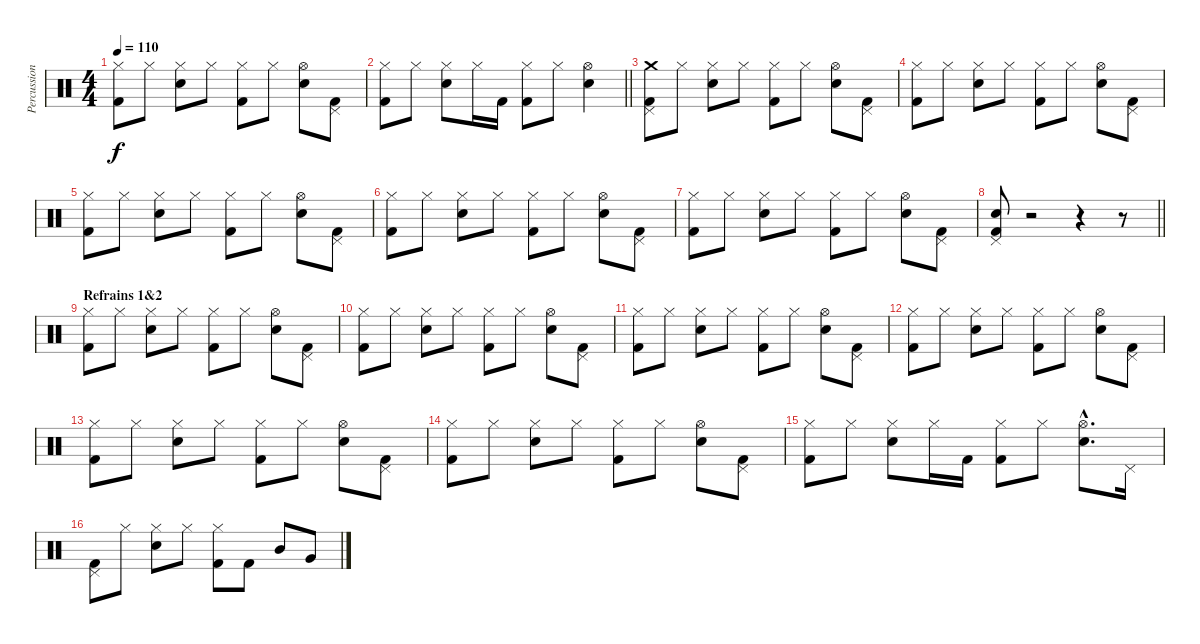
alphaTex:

\track ("Percussion" "Percussion") {instrument percussion}
\staff {score}
\articulation defaults
\ts (4 4)
\tempo 110
\clef neutral
\ks c
("Hi-Hat (closed)" "Kick (hit) 2").8{dy f} "Hi-Hat (closed)".8 ("Hi-Hat (closed)" "Snare (hit) 2").8 "Hi-Hat (closed)".8 ("Hi-Hat (closed)" "Kick (hit) 2").8 "Hi-Hat (closed)".8 ("Hi-Hat (open)" "Snare (hit) 2").8 ("Pedal Hi-Hat (hit)" "Kick (hit) 2").8 |
\barLineRight lightlight
("Hi-Hat (closed)" "Kick (hit) 2").8 "Hi-Hat (closed)".8 ("Hi-Hat (closed)" "Snare (hit) 2").8 "Hi-Hat (closed)".16 "Kick (hit) 2".16 ("Hi-Hat (closed)" "Kick (hit) 2").8 "Hi-Hat (closed)".8 ("Hi-Hat (open)" "Snare (hit) 2").4 |
("Pedal Hi-Hat (hit)" "Crash medium (hit)" "Kick (hit) 2").8 "Hi-Hat (closed)".8 ("Hi-Hat (closed)" "Snare (hit) 2").8 "Hi-Hat (closed)".8 ("Hi-Hat (closed)" "Kick (hit) 2").8 "Hi-Hat (closed)".8 ("Hi-Hat (open)" "Snare (hit) 2").8 ("Pedal Hi-Hat (hit)" "Kick (hit) 2").8 |
("Hi-Hat (closed)" "Kick (hit) 2").8 "Hi-Hat (closed)".8 ("Hi-Hat (closed)" "Snare (hit) 2").8 "Hi-Hat (closed)".8 ("Hi-Hat (closed)" "Kick (hit) 2").8 "Hi-Hat (closed)".8 ("Hi-Hat (open)" "Snare (hit) 2").8 ("Pedal Hi-Hat (hit)" "Kick (hit) 2").8 |
("Hi-Hat (closed)" "Kick (hit) 2").8 "Hi-Hat (closed)".8 ("Hi-Hat (closed)" "Snare (hit) 2").8 "Hi-Hat (closed)".8 ("Hi-Hat (closed)" "Kick (hit) 2").8 "Hi-Hat (closed)".8 ("Hi-Hat (open)" "Snare (hit) 2").8 ("Pedal Hi-Hat (hit)" "Kick (hit) 2").8 |
("Hi-Hat (closed)" "Kick (hit) 2").8 "Hi-Hat (closed)".8 ("Hi-Hat (closed)" "Snare (hit) 2").8 "Hi-Hat (closed)".8 ("Hi-Hat (closed)" "Kick (hit) 2").8 "Hi-Hat (closed)".8 ("Hi-Hat (open)" "Snare (hit) 2").8 ("Pedal Hi-Hat (hit)" "Kick (hit) 2").8 |
("Hi-Hat (closed)" "Kick (hit) 2").8 "Hi-Hat (closed)".8 ("Hi-Hat (closed)" "Snare (hit) 2").8 "Hi-Hat (closed)".8 ("Hi-Hat (closed)" "Kick (hit) 2").8 "Hi-Hat (closed)".8 ("Hi-Hat (open)" "Snare (hit) 2").8 ("Pedal Hi-Hat (hit)" "Kick (hit) 2").8 |
\barLineRight lightlight
("Pedal Hi-Hat (hit)" "Snare (hit) 2" "Kick (hit) 2").8 r.2 r.4 r.8 |
\section ("" "Refrains 1&2")
("Hi-Hat (closed)" "Kick (hit) 2").8 "Hi-Hat (closed)".8 ("Hi-Hat (closed)" "Snare (hit) 2").8 "Hi-Hat (closed)".8 ("Hi-Hat (closed)" "Kick (hit) 2").8 "Hi-Hat (closed)".8 ("Hi-Hat (open)" "Snare (hit) 2").8 ("Pedal Hi-Hat (hit)" "Kick (hit) 2").8 |
("Hi-Hat (closed)" "Kick (hit) 2").8 "Hi-Hat (closed)".8 ("Hi-Hat (closed)" "Snare (hit) 2").8 "Hi-Hat (closed)".8 ("Hi-Hat (closed)" "Kick (hit) 2").8 "Hi-Hat (closed)".8 ("Hi-Hat (open)" "Snare (hit) 2").8 ("Pedal Hi-Hat (hit)" "Kick (hit) 2").8 |
("Hi-Hat (closed)" "Kick (hit) 2").8 "Hi-Hat (closed)".8 ("Hi-Hat (closed)" "Snare (hit) 2").8 "Hi-Hat (closed)".8 ("Hi-Hat (closed)" "Kick (hit) 2").8 "Hi-Hat (closed)".8 ("Hi-Hat (open)" "Snare (hit) 2").8 ("Pedal Hi-Hat (hit)" "Kick (hit) 2").8 |
("Hi-Hat (closed)" "Kick (hit) 2").8 "Hi-Hat (closed)".8 ("Hi-Hat (closed)" "Snare (hit) 2").8 "Hi-Hat (closed)".8 ("Hi-Hat (closed)" "Kick (hit) 2").8 "Hi-Hat (closed)".8 ("Hi-Hat (open)" "Snare (hit) 2").8 ("Pedal Hi-Hat (hit)" "Kick (hit) 2").8 |
("Hi-Hat (closed)" "Kick (hit) 2").8 "Hi-Hat (closed)".8 ("Hi-Hat (closed)" "Snare (hit) 2").8 "Hi-Hat (closed)".8 ("Hi-Hat (closed)" "Kick (hit) 2").8 "Hi-Hat (closed)".8 ("Hi-Hat (open)" "Snare (hit) 2").8 ("Pedal Hi-Hat (hit)" "Kick (hit) 2").8 |
("Hi-Hat (closed)" "Kick (hit) 2").8 "Hi-Hat (closed)".8 ("Hi-Hat (closed)" "Snare (hit) 2").8 "Hi-Hat (closed)".8 ("Hi-Hat (closed)" "Kick (hit) 2").8 "Hi-Hat (closed)".8 ("Hi-Hat (open)" "Snare (hit) 2").8 ("Pedal Hi-Hat (hit)" "Kick (hit) 2").8 |
("Hi-Hat (closed)" "Kick (hit) 2").8 "Hi-Hat (closed)".8 ("Hi-Hat (closed)" "Snare (hit) 2").8 "Hi-Hat (closed)".16 "Kick (hit) 2".16 ("Hi-Hat (closed)" "Kick (hit) 2").8 "Hi-Hat (closed)".8 ("Hi-Hat (open)"{hac} "Snare (hit) 2"{hac}).8{d} "Pedal Hi-Hat (hit)".16 |
("Pedal Hi-Hat (hit)" "Kick (hit) 2").8 "Hi-Hat (closed)".8 ("Hi-Hat (closed)" "Snare (hit) 2").8 "Hi-Hat (closed)".8 ("Hi-Hat (closed)" "Kick (hit) 2").8 "Kick (hit) 2".8 "Mid Tom (hit)".8 "Very Low Tom (hit)".8
